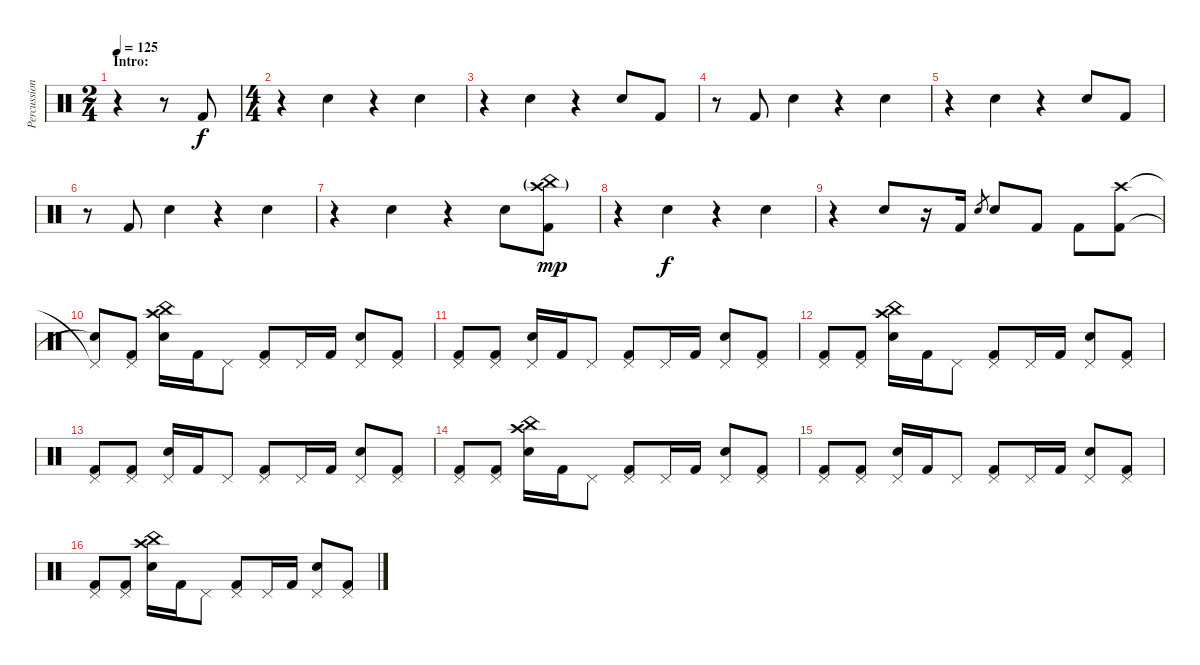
\track ("Percussion" "Percussion") {instrument percussion}
\staff {score}
\articulation defaults
\ts (2 4)
\section ("" "Intro:")
\tempo 125
\clef neutral
\ks c
r.4{dy f} r.8 "Kick (hit) 2".8 |
\ts (4 4)
r.4 "Electric Snare (hit)".4 r.4 "Electric Snare (hit)".4 |
r.4 "Electric Snare (hit)".4 r.4 "Electric Snare (hit)".8 "Kick (hit) 2".8 |
r.8 "Kick (hit) 2".8 "Electric Snare (hit)".4 r.4 "Electric Snare (hit)".4 |
r.4 "Electric Snare (hit)".4 r.4 "Electric Snare (hit)".8 "Kick (hit) 2".8 |
r.8 "Kick (hit) 2".8 "Electric Snare (hit)".4 r.4 "Electric Snare (hit)".4 |
r.4 "Electric Snare (hit)".4 r.4 "Electric Snare (hit)".8 ("Crash high (hit)"{g} "China (hit)"{g} "Kick (hit) 2").8{dy mp} |
r.4 "Electric Snare (hit)".4{dy f} r.4 "Electric Snare (hit)".4 |
r.4 "Electric Snare (hit)".8 r.16 "Kick (hit) 2".16 "Electric Snare (hit)".8{gr} "Electric Snare (hit)".8 "Kick (hit) 2".8 "Kick (hit) 2".8 ("Crash high (hit)" "Kick (hit) 2").8 |
("Pedal Hi-Hat (hit)"{t} "Snare (hit)"{t}).8 ("Pedal Hi-Hat (hit)" "Kick (hit) 2").8 ("Crash high (hit)" "China (hit)" "Electric Snare (hit)").16 "Kick (hit) 2".16 "Pedal Hi-Hat (hit)".8 ("Pedal Hi-Hat (hit)" "Kick (hit) 2").8 "Pedal Hi-Hat (hit)".16 "Kick (hit) 2".16 ("Pedal Hi-Hat (hit)" "Electric Snare (hit)").8 ("Pedal Hi-Hat (hit)" "Kick (hit) 2").8 |
("Pedal Hi-Hat (hit)" "Kick (hit) 2").8 ("Pedal Hi-Hat (hit)" "Kick (hit) 2").8 ("Pedal Hi-Hat (hit)" "Electric Snare (hit)").16 "Kick (hit) 2".16 "Pedal Hi-Hat (hit)".8 ("Pedal Hi-Hat (hit)" "Kick (hit) 2").8 "Pedal Hi-Hat (hit)".16 "Kick (hit) 2".16 ("Pedal Hi-Hat (hit)" "Electric Snare (hit)").8 ("Pedal Hi-Hat (hit)" "Kick (hit) 2").8 |
("Pedal Hi-Hat (hit)" "Kick (hit) 2").8 ("Pedal Hi-Hat (hit)" "Kick (hit) 2").8 ("Crash high (hit)" "China (hit)" "Electric Snare (hit)").16 "Kick (hit) 2".16 "Pedal Hi-Hat (hit)".8 ("Pedal Hi-Hat (hit)" "Kick (hit) 2").8 "Pedal Hi-Hat (hit)".16 "Kick (hit) 2".16 ("Pedal Hi-Hat (hit)" "Electric Snare (hit)").8 ("Pedal Hi-Hat (hit)" "Kick (hit) 2").8 |
("Pedal Hi-Hat (hit)" "Kick (hit) 2").8 ("Pedal Hi-Hat (hit)" "Kick (hit) 2").8 ("Pedal Hi-Hat (hit)" "Electric Snare (hit)").16 "Kick (hit) 2".16 "Pedal Hi-Hat (hit)".8 ("Pedal Hi-Hat (hit)" "Kick (hit) 2").8 "Pedal Hi-Hat (hit)".16 "Kick (hit) 2".16 ("Pedal Hi-Hat (hit)" "Electric Snare (hit)").8 ("Pedal Hi-Hat (hit)" "Kick (hit) 2").8 |
("Pedal Hi-Hat (hit)" "Kick (hit) 2").8 ("Pedal Hi-Hat (hit)" "Kick (hit) 2").8 ("Crash high (hit)" "China (hit)" "Electric Snare (hit)").16 "Kick (hit) 2".16 "Pedal Hi-Hat (hit)".8 ("Pedal Hi-Hat (hit)" "Kick (hit) 2").8 "Pedal Hi-Hat (hit)".16 "Kick (hit) 2".16 ("Pedal Hi-Hat (hit)" "Electric Snare (hit)").8 ("Pedal Hi-Hat (hit)" "Kick (hit) 2").8 |
("Pedal Hi-Hat (hit)" "Kick (hit) 2").8 ("Pedal Hi-Hat (hit)" "Kick (hit) 2").8 ("Pedal Hi-Hat (hit)" "Electric Snare (hit)").16 "Kick (hit) 2".16 "Pedal Hi-Hat (hit)".8 ("Pedal Hi-Hat (hit)" "Kick (hit) 2").8 "Pedal Hi-Hat (hit)".16 "Kick (hit) 2".16 ("Pedal Hi-Hat (hit)" "Electric Snare (hit)").8 ("Pedal Hi-Hat (hit)" "Kick (hit) 2").8 |
("Pedal Hi-Hat (hit)" "Kick (hit) 2").8 ("Pedal Hi-Hat (hit)" "Kick (hit) 2").8 ("Crash high (hit)" "China (hit)" "Electric Snare (hit)").16 "Kick (hit) 2".16 "Pedal Hi-Hat (hit)".8 ("Pedal Hi-Hat (hit)" "Kick (hit) 2").8 "Pedal Hi-Hat (hit)".16 "Kick (hit) 2".16 ("Pedal Hi-Hat (hit)" "Electric Snare (hit)").8 ("Pedal Hi-Hat (hit)" "Kick (hit) 2").8
